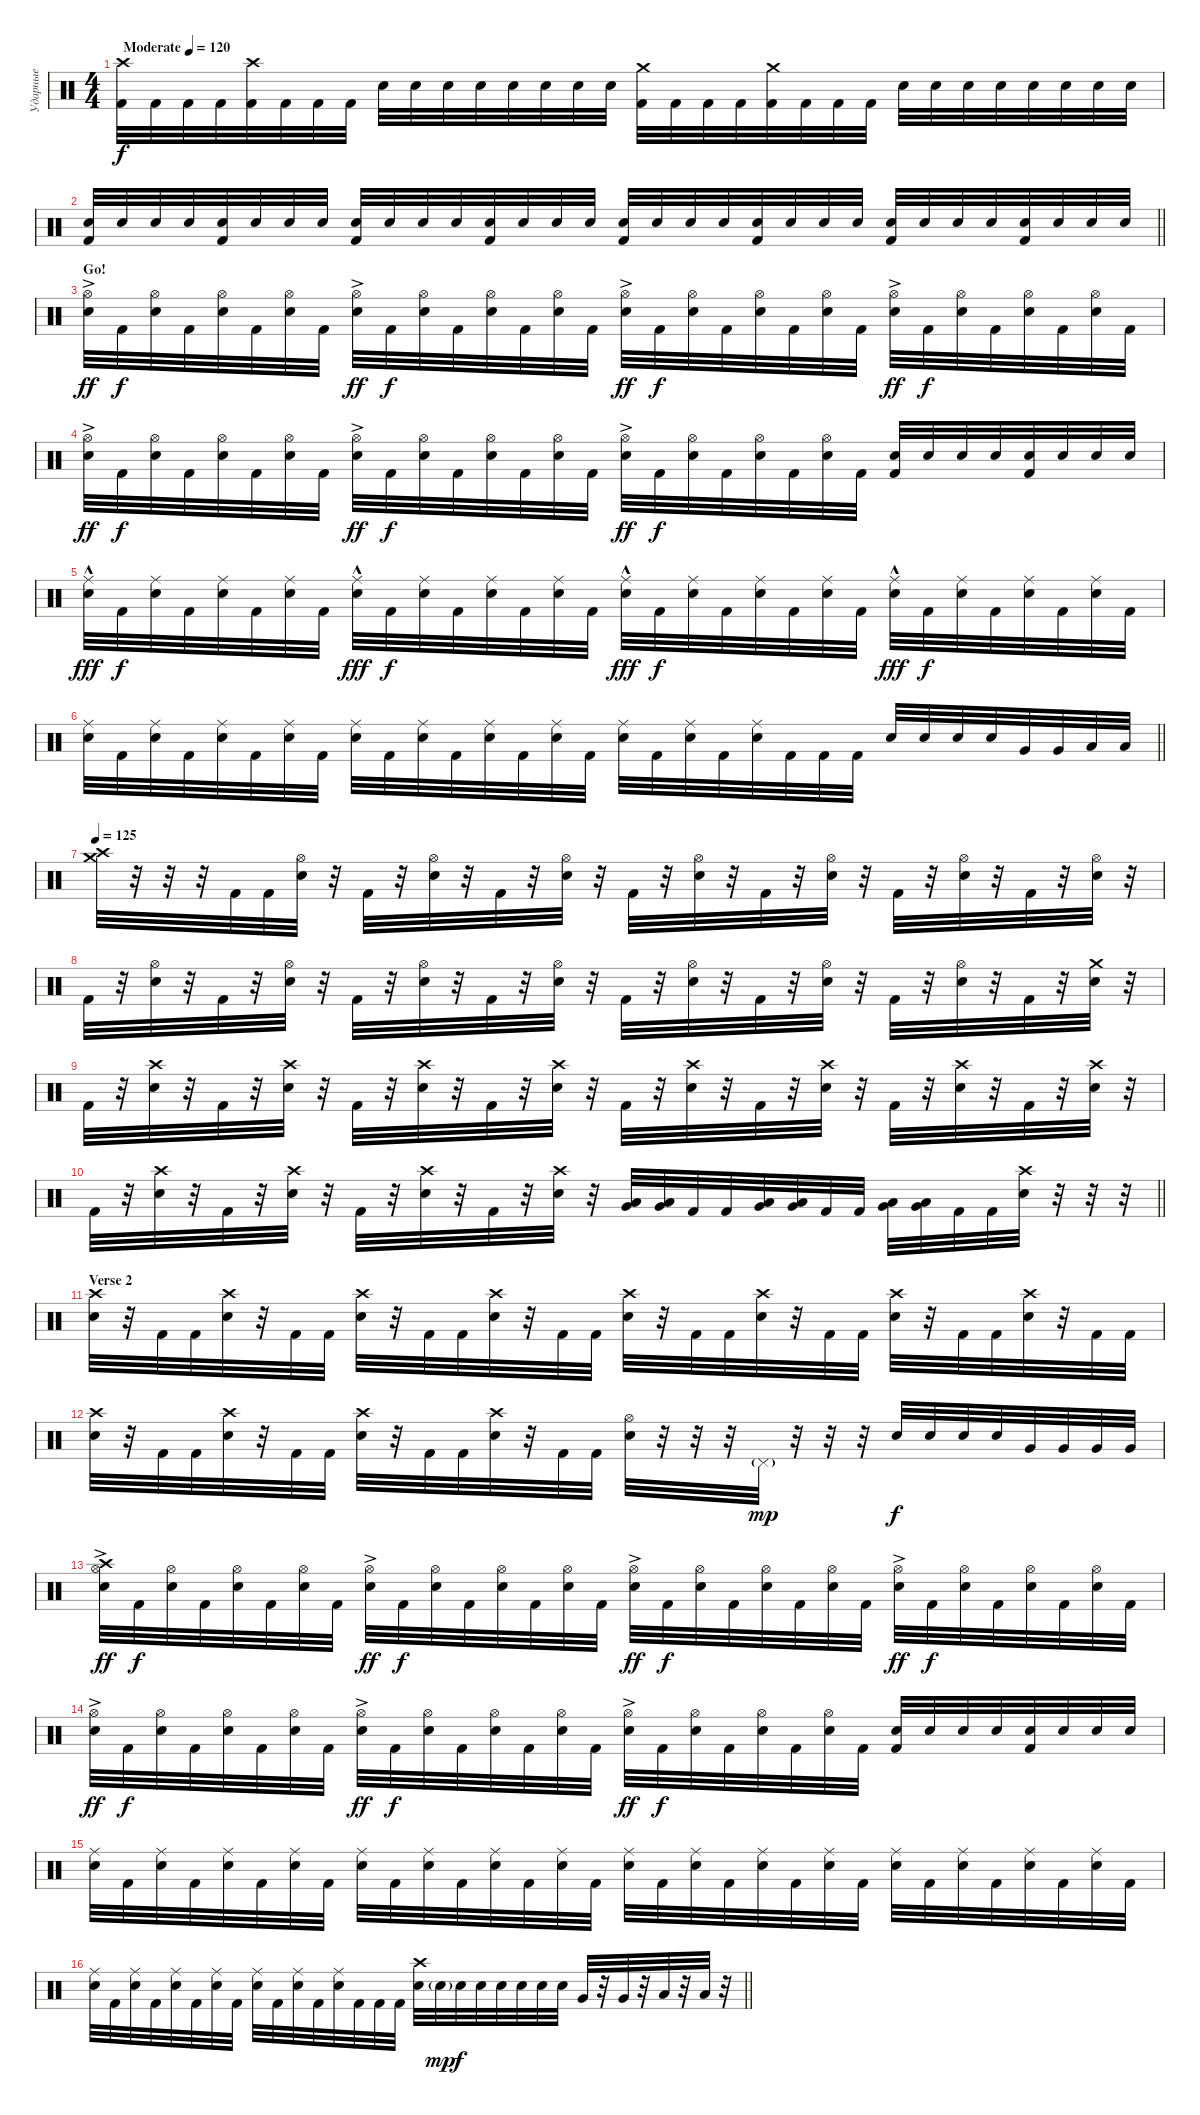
\track ("Ударные" "Ударные") {instrument percussion}
\staff {score}
\articulation defaults
\ts (4 4)
\tempo (120 "Moderate")
\tempo 125
\tempo (120 "Moderate")
\clef neutral
\ks c
("Crash high (hit)" "Kick (hit) 2").32{dy f} "Kick (hit) 2".32 "Kick (hit) 2".32 "Kick (hit) 2".32 ("Crash high (hit)" "Kick (hit) 2").32 "Kick (hit) 2".32 "Kick (hit) 2".32 "Kick (hit) 2".32 "Electric Snare (hit)".32 "Electric Snare (hit)".32 "Electric Snare (hit)".32 "Electric Snare (hit)".32 "Electric Snare (hit)".32 "Electric Snare (hit)".32 "Electric Snare (hit)".32 "Electric Snare (hit)".32 ("Crash medium (hit)" "Kick (hit) 2").32 "Kick (hit) 2".32 "Kick (hit) 2".32 "Kick (hit) 2".32 ("Crash medium (hit)" "Kick (hit) 2").32 "Kick (hit) 2".32 "Kick (hit) 2".32 "Kick (hit) 2".32 "Electric Snare (hit)".32 "Electric Snare (hit)".32 "Electric Snare (hit)".32 "Electric Snare (hit)".32 "Electric Snare (hit)".32 "Electric Snare (hit)".32 "Electric Snare (hit)".32 "Electric Snare (hit)".32 |
\barLineRight lightlight
("Kick (hit) 2" "Electric Snare (hit)").32 "Electric Snare (hit)".32 "Electric Snare (hit)".32 "Electric Snare (hit)".32 ("Kick (hit) 2" "Electric Snare (hit)").32 "Electric Snare (hit)".32 "Electric Snare (hit)".32 "Electric Snare (hit)".32 ("Kick (hit) 2" "Electric Snare (hit)").32 "Electric Snare (hit)".32 "Electric Snare (hit)".32 "Electric Snare (hit)".32 ("Kick (hit) 2" "Electric Snare (hit)").32 "Electric Snare (hit)".32 "Electric Snare (hit)".32 "Electric Snare (hit)".32 ("Kick (hit) 2" "Electric Snare (hit)").32 "Electric Snare (hit)".32 "Electric Snare (hit)".32 "Electric Snare (hit)".32 ("Kick (hit) 2" "Electric Snare (hit)").32 "Electric Snare (hit)".32 "Electric Snare (hit)".32 "Electric Snare (hit)".32 ("Kick (hit) 2" "Electric Snare (hit)").32 "Electric Snare (hit)".32 "Electric Snare (hit)".32 "Electric Snare (hit)".32 ("Kick (hit) 2" "Electric Snare (hit)").32 "Electric Snare (hit)".32 "Electric Snare (hit)".32 "Electric Snare (hit)".32 |
\section ("" "Go!")
("Electric Snare (hit)"{ac} "Hi-Hat (open)"{ac}).32{dy ff} "Kick (hit) 2".32{dy f} ("Electric Snare (hit)" "Hi-Hat (open)").32 "Kick (hit) 2".32 ("Electric Snare (hit)" "Hi-Hat (open)").32 "Kick (hit) 2".32 ("Electric Snare (hit)" "Hi-Hat (open)").32 "Kick (hit) 2".32 ("Electric Snare (hit)"{ac} "Hi-Hat (open)"{ac}).32{dy ff} "Kick (hit) 2".32{dy f} ("Electric Snare (hit)" "Hi-Hat (open)").32 "Kick (hit) 2".32 ("Electric Snare (hit)" "Hi-Hat (open)").32 "Kick (hit) 2".32 ("Electric Snare (hit)" "Hi-Hat (open)").32 "Kick (hit) 2".32 ("Electric Snare (hit)"{ac} "Hi-Hat (open)"{ac}).32{dy ff} "Kick (hit) 2".32{dy f} ("Electric Snare (hit)" "Hi-Hat (open)").32 "Kick (hit) 2".32 ("Electric Snare (hit)" "Hi-Hat (open)").32 "Kick (hit) 2".32 ("Electric Snare (hit)" "Hi-Hat (open)").32 "Kick (hit) 2".32 ("Electric Snare (hit)"{ac} "Hi-Hat (open)"{ac}).32{dy ff} "Kick (hit) 2".32{dy f} ("Electric Snare (hit)" "Hi-Hat (open)").32 "Kick (hit) 2".32 ("Electric Snare (hit)" "Hi-Hat (open)").32 "Kick (hit) 2".32 ("Electric Snare (hit)" "Hi-Hat (open)").32 "Kick (hit) 2".32 |
("Electric Snare (hit)"{ac} "Hi-Hat (open)"{ac}).32{dy ff} "Kick (hit) 2".32{dy f} ("Electric Snare (hit)" "Hi-Hat (open)").32 "Kick (hit) 2".32 ("Electric Snare (hit)" "Hi-Hat (open)").32 "Kick (hit) 2".32 ("Electric Snare (hit)" "Hi-Hat (open)").32 "Kick (hit) 2".32 ("Electric Snare (hit)"{ac} "Hi-Hat (open)"{ac}).32{dy ff} "Kick (hit) 2".32{dy f} ("Electric Snare (hit)" "Hi-Hat (open)").32 "Kick (hit) 2".32 ("Electric Snare (hit)" "Hi-Hat (open)").32 "Kick (hit) 2".32 ("Electric Snare (hit)" "Hi-Hat (open)").32 "Kick (hit) 2".32 ("Electric Snare (hit)"{ac} "Hi-Hat (open)"{ac}).32{dy ff} "Kick (hit) 2".32{dy f} ("Electric Snare (hit)" "Hi-Hat (open)").32 "Kick (hit) 2".32 ("Electric Snare (hit)" "Hi-Hat (open)").32 "Kick (hit) 2".32 ("Electric Snare (hit)" "Hi-Hat (open)").32 "Kick (hit) 2".32 ("Kick (hit) 2" "Electric Snare (hit)").32 "Electric Snare (hit)".32 "Electric Snare (hit)".32 "Electric Snare (hit)".32 ("Kick (hit) 2" "Electric Snare (hit)").32 "Electric Snare (hit)".32 "Electric Snare (hit)".32 "Electric Snare (hit)".32 |
("Electric Snare (hit)" "Ride (middle)"{hac}).32{dy fff} "Kick (hit) 2".32{dy f} ("Electric Snare (hit)" "Ride (middle)").32 "Kick (hit) 2".32 ("Electric Snare (hit)" "Ride (middle)").32 "Kick (hit) 2".32 ("Electric Snare (hit)" "Ride (middle)").32 "Kick (hit) 2".32 ("Electric Snare (hit)" "Ride (middle)"{hac}).32{dy fff} "Kick (hit) 2".32{dy f} ("Electric Snare (hit)" "Ride (middle)").32 "Kick (hit) 2".32 ("Electric Snare (hit)" "Ride (middle)").32 "Kick (hit) 2".32 ("Electric Snare (hit)" "Ride (middle)").32 "Kick (hit) 2".32 ("Electric Snare (hit)" "Ride (middle)"{hac}).32{dy fff} "Kick (hit) 2".32{dy f} ("Electric Snare (hit)" "Ride (middle)").32 "Kick (hit) 2".32 ("Electric Snare (hit)" "Ride (middle)").32 "Kick (hit) 2".32 ("Electric Snare (hit)" "Ride (middle)").32 "Kick (hit) 2".32 ("Electric Snare (hit)" "Ride (middle)"{hac}).32{dy fff} "Kick (hit) 2".32{dy f} ("Electric Snare (hit)" "Ride (middle)").32 "Kick (hit) 2".32 ("Electric Snare (hit)" "Ride (middle)").32 "Kick (hit) 2".32 ("Electric Snare (hit)" "Ride (middle)").32 "Kick (hit) 2".32 |
\barLineRight lightlight
("Electric Snare (hit)" "Ride (middle)").32 "Kick (hit) 2".32 ("Electric Snare (hit)" "Ride (middle)").32 "Kick (hit) 2".32 ("Electric Snare (hit)" "Ride (middle)").32 "Kick (hit) 2".32 ("Electric Snare (hit)" "Ride (middle)").32 "Kick (hit) 2".32 ("Electric Snare (hit)" "Ride (middle)").32 "Kick (hit) 2".32 ("Electric Snare (hit)" "Ride (middle)").32 "Kick (hit) 2".32 ("Electric Snare (hit)" "Ride (middle)").32 "Kick (hit) 2".32 ("Electric Snare (hit)" "Ride (middle)").32 "Kick (hit) 2".32 ("Electric Snare (hit)" "Ride (middle)").32 "Kick (hit) 2".32 ("Electric Snare (hit)" "Ride (middle)").32 "Kick (hit) 2".32 ("Electric Snare (hit)" "Ride (middle)").32 "Kick (hit) 2".32 "Kick (hit) 2".32 "Kick (hit) 2".32 "Electric Snare (hit)".32 "Electric Snare (hit)".32 "Electric Snare (hit)".32 "Electric Snare (hit)".32 "Very Low Tom (hit)".32 "Very Low Tom (hit)".32 "Low Floor Tom (hit)".32 "Low Floor Tom (hit)".32 |
\section ("" "")
\tempo 125
("Crash high (hit)" "Crash medium (hit)").32 r.32 r.32 r.32 "Kick (hit) 2".32 "Kick (hit) 2".32 ("Hi-Hat (open)" "Electric Snare (hit)").32 r.32 "Kick (hit) 2".32 r.32 ("Hi-Hat (open)" "Electric Snare (hit)").32 r.32 "Kick (hit) 2".32 r.32 ("Hi-Hat (open)" "Electric Snare (hit)").32 r.32 "Kick (hit) 2".32 r.32 ("Hi-Hat (open)" "Electric Snare (hit)").32 r.32 "Kick (hit) 2".32 r.32 ("Hi-Hat (open)" "Electric Snare (hit)").32 r.32 "Kick (hit) 2".32 r.32 ("Hi-Hat (open)" "Electric Snare (hit)").32 r.32 "Kick (hit) 2".32 r.32 ("Hi-Hat (open)" "Electric Snare (hit)").32 r.32 |
"Kick (hit) 2".32 r.32 ("Hi-Hat (open)" "Electric Snare (hit)").32 r.32 "Kick (hit) 2".32 r.32 ("Hi-Hat (open)" "Electric Snare (hit)").32 r.32 "Kick (hit) 2".32 r.32 ("Hi-Hat (open)" "Electric Snare (hit)").32 r.32 "Kick (hit) 2".32 r.32 ("Hi-Hat (open)" "Electric Snare (hit)").32 r.32 "Kick (hit) 2".32 r.32 ("Hi-Hat (open)" "Electric Snare (hit)").32 r.32 "Kick (hit) 2".32 r.32 ("Hi-Hat (open)" "Electric Snare (hit)").32 r.32 "Kick (hit) 2".32 r.32 ("Hi-Hat (open)" "Electric Snare (hit)").32 r.32 "Kick (hit) 2".32 r.32 ("Crash medium (hit)" "Electric Snare (hit)").32 r.32 |
"Kick (hit) 2".32 r.32 ("Crash high (hit)" "Electric Snare (hit)").32 r.32 "Kick (hit) 2".32 r.32 ("Crash high (hit)" "Electric Snare (hit)").32 r.32 "Kick (hit) 2".32 r.32 ("Crash high (hit)" "Electric Snare (hit)").32 r.32 "Kick (hit) 2".32 r.32 ("Crash high (hit)" "Electric Snare (hit)").32 r.32 "Kick (hit) 2".32 r.32 ("Crash high (hit)" "Electric Snare (hit)").32 r.32 "Kick (hit) 2".32 r.32 ("Crash high (hit)" "Electric Snare (hit)").32 r.32 "Kick (hit) 2".32 r.32 ("Crash high (hit)" "Electric Snare (hit)").32 r.32 "Kick (hit) 2".32 r.32 ("Crash high (hit)" "Electric Snare (hit)").32 r.32 |
\barLineRight lightlight "Kick (hit) 2".32
r.32 ("Crash high (hit)" "Electric Snare (hit)").32 r.32 "Kick (hit) 2".32 r.32 ("Crash high (hit)" "Electric Snare (hit)").32 r.32 "Kick (hit) 2".32 r.32 ("Crash high (hit)" "Electric Snare (hit)").32 r.32 "Kick (hit) 2".32 r.32 ("Crash high (hit)" "Electric Snare (hit)").32 r.32 ("Low Tom (hit)" "Very Low Tom (hit)").32 ("Low Tom (hit)" "Very Low Tom (hit)").32 "Kick (hit) 2".32 "Kick (hit) 2".32 ("Low Tom (hit)" "Very Low Tom (hit)").32 ("Low Tom (hit)" "Very Low Tom (hit)").32 "Kick (hit) 2".32 "Kick (hit) 2".32 ("Low Tom (hit)" "Very Low Tom (hit)").32 ("Low Tom (hit)" "Very Low Tom (hit)").32 "Kick (hit) 2".32 "Kick (hit) 2".32 ("Electric Snare (hit)" "Crash high (hit)").32 r.32 r.32 r.32 |
\section ("" "Verse 2 ")
("Crash high (hit)" "Electric Snare (hit)").32 r.32 "Kick (hit) 2".32 "Kick (hit) 2".32 ("Crash high (hit)" "Electric Snare (hit)").32 r.32 "Kick (hit) 2".32 "Kick (hit) 2".32 ("Crash high (hit)" "Electric Snare (hit)").32 r.32 "Kick (hit) 2".32 "Kick (hit) 2".32 ("Crash high (hit)" "Electric Snare (hit)").32 r.32 "Kick (hit) 2".32 "Kick (hit) 2".32 ("Crash high (hit)" "Electric Snare (hit)").32 r.32 "Kick (hit) 2".32 "Kick (hit) 2".32 ("Crash high (hit)" "Electric Snare (hit)").32 r.32 "Kick (hit) 2".32 "Kick (hit) 2".32 ("Crash high (hit)" "Electric Snare (hit)").32 r.32 "Kick (hit) 2".32 "Kick (hit) 2".32 ("Crash high (hit)" "Electric Snare (hit)").32 r.32 "Kick (hit) 2".32 "Kick (hit) 2".32 |
("Crash high (hit)" "Electric Snare (hit)").32 r.32 "Kick (hit) 2".32 "Kick (hit) 2".32 ("Crash high (hit)" "Electric Snare (hit)").32 r.32 "Kick (hit) 2".32 "Kick (hit) 2".32 ("Crash high (hit)" "Electric Snare (hit)").32 r.32 "Kick (hit) 2".32 "Kick (hit) 2".32 ("Crash high (hit)" "Electric Snare (hit)").32 r.32 "Kick (hit) 2".32 "Kick (hit) 2".32 ("Hi-Hat (open)" "Electric Snare (hit)").32 r.32 r.32 r.32 "Pedal Hi-Hat (hit)"{g}.32{dy mp} r.32 r.32 r.32 "Electric Snare (hit)".32{dy f} "Electric Snare (hit)".32 "Electric Snare (hit)".32 "Electric Snare (hit)".32 "Very Low Tom (hit)".32 "Very Low Tom (hit)".32 "Very Low Tom (hit)".32 "Very Low Tom (hit)".32 |
("Crash high (hit)" "Electric Snare (hit)"{ac} "Hi-Hat (open)"{ac}).32{dy ff} "Kick (hit) 2".32{dy f} ("Electric Snare (hit)" "Hi-Hat (open)").32 "Kick (hit) 2".32 ("Electric Snare (hit)" "Hi-Hat (open)").32 "Kick (hit) 2".32 ("Electric Snare (hit)" "Hi-Hat (open)").32 "Kick (hit) 2".32 ("Electric Snare (hit)"{ac} "Hi-Hat (open)"{ac}).32{dy ff} "Kick (hit) 2".32{dy f} ("Electric Snare (hit)" "Hi-Hat (open)").32 "Kick (hit) 2".32 ("Electric Snare (hit)" "Hi-Hat (open)").32 "Kick (hit) 2".32 ("Electric Snare (hit)" "Hi-Hat (open)").32 "Kick (hit) 2".32 ("Electric Snare (hit)"{ac} "Hi-Hat (open)"{ac}).32{dy ff} "Kick (hit) 2".32{dy f} ("Electric Snare (hit)" "Hi-Hat (open)").32 "Kick (hit) 2".32 ("Electric Snare (hit)" "Hi-Hat (open)").32 "Kick (hit) 2".32 ("Electric Snare (hit)" "Hi-Hat (open)").32 "Kick (hit) 2".32 ("Electric Snare (hit)"{ac} "Hi-Hat (open)"{ac}).32{dy ff} "Kick (hit) 2".32{dy f} ("Electric Snare (hit)" "Hi-Hat (open)").32 "Kick (hit) 2".32 ("Electric Snare (hit)" "Hi-Hat (open)").32 "Kick (hit) 2".32 ("Electric Snare (hit)" "Hi-Hat (open)").32 "Kick (hit) 2".32 |
("Electric Snare (hit)"{ac} "Hi-Hat (open)"{ac}).32{dy ff} "Kick (hit) 2".32{dy f} ("Electric Snare (hit)" "Hi-Hat (open)").32 "Kick (hit) 2".32 ("Electric Snare (hit)" "Hi-Hat (open)").32 "Kick (hit) 2".32 ("Electric Snare (hit)" "Hi-Hat (open)").32 "Kick (hit) 2".32 ("Electric Snare (hit)"{ac} "Hi-Hat (open)"{ac}).32{dy ff} "Kick (hit) 2".32{dy f} ("Electric Snare (hit)" "Hi-Hat (open)").32 "Kick (hit) 2".32 ("Electric Snare (hit)" "Hi-Hat (open)").32 "Kick (hit) 2".32 ("Electric Snare (hit)" "Hi-Hat (open)").32 "Kick (hit) 2".32 ("Electric Snare (hit)"{ac} "Hi-Hat (open)"{ac}).32{dy ff} "Kick (hit) 2".32{dy f} ("Electric Snare (hit)" "Hi-Hat (open)").32 "Kick (hit) 2".32 ("Electric Snare (hit)" "Hi-Hat (open)").32 "Kick (hit) 2".32 ("Electric Snare (hit)" "Hi-Hat (open)").32 "Kick (hit) 2".32 ("Kick (hit) 2" "Electric Snare (hit)").32 "Electric Snare (hit)".32 "Electric Snare (hit)".32 "Electric Snare (hit)".32 ("Kick (hit) 2" "Electric Snare (hit)").32 "Electric Snare (hit)".32 "Electric Snare (hit)".32 "Electric Snare (hit)".32 |
("Electric Snare (hit)" "Ride (middle)").32 "Kick (hit) 2".32 ("Electric Snare (hit)" "Ride (middle)").32 "Kick (hit) 2".32 ("Electric Snare (hit)" "Ride (middle)").32 "Kick (hit) 2".32 ("Electric Snare (hit)" "Ride (middle)").32 "Kick (hit) 2".32 ("Electric Snare (hit)" "Ride (middle)").32 "Kick (hit) 2".32 ("Electric Snare (hit)" "Ride (middle)").32 "Kick (hit) 2".32 ("Electric Snare (hit)" "Ride (middle)").32 "Kick (hit) 2".32 ("Electric Snare (hit)" "Ride (middle)").32 "Kick (hit) 2".32 ("Electric Snare (hit)" "Ride (middle)").32 "Kick (hit) 2".32 ("Electric Snare (hit)" "Ride (middle)").32 "Kick (hit) 2".32 ("Electric Snare (hit)" "Ride (middle)").32 "Kick (hit) 2".32 ("Electric Snare (hit)" "Ride (middle)").32 "Kick (hit) 2".32 ("Electric Snare (hit)" "Ride (middle)").32 "Kick (hit) 2".32 ("Electric Snare (hit)" "Ride (middle)").32 "Kick (hit) 2".32 ("Electric Snare (hit)" "Ride (middle)").32 "Kick (hit) 2".32 ("Electric Snare (hit)" "Ride (middle)").32 "Kick (hit) 2".32 |
\barLineRight lightlight
("Electric Snare (hit)" "Ride (middle)").32 "Kick (hit) 2".32 ("Electric Snare (hit)" "Ride (middle)").32 "Kick (hit) 2".32 ("Electric Snare (hit)" "Ride (middle)").32 "Kick (hit) 2".32 ("Electric Snare (hit)" "Ride (middle)").32 "Kick (hit) 2".32 ("Electric Snare (hit)" "Ride (middle)").32 "Kick (hit) 2".32 ("Electric Snare (hit)" "Ride (middle)").32 "Kick (hit) 2".32 ("Electric Snare (hit)" "Ride (middle)").32 "Kick (hit) 2".32 "Kick (hit) 2".32 "Kick (hit) 2".32 ("Electric Snare (hit)" "Crash high (hit)").32 "Electric Snare (hit)"{g}.32{dy mp} "Electric Snare (hit)".32{dy f} "Electric Snare (hit)".32 "Electric Snare (hit)".32 "Electric Snare (hit)".32 "Electric Snare (hit)".32 "Electric Snare (hit)".32 "Very Low Tom (hit)".32 r.32 "Very Low Tom (hit)".32 r.32 "Low Floor Tom (hit)".32 r.32 "Low Floor Tom (hit)".32 r.32
